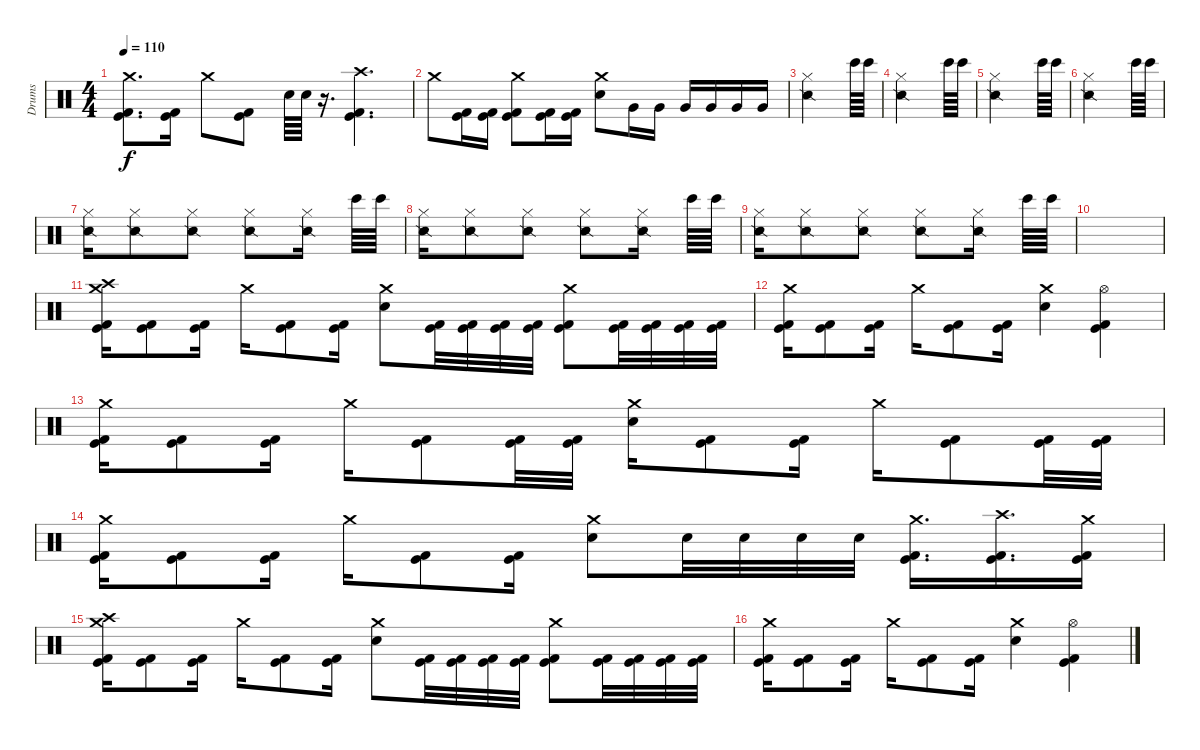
\track ("Drums" "Drums") {instrument percussion}
\staff {score}
\articulation defaults
\ts (4 4)
\tempo 110
\clef neutral
\ks c
("Crash medium (hit)" "Kick (hit)" "Kick (hit) 2").8{d dy f} ("Kick (hit)" "Kick (hit) 2").16 "Crash medium (hit)".8 ("Kick (hit)" "Kick (hit) 2").8 "Electric Snare (hit)".64 "Electric Snare (hit)".64 r.16{d} ("Crash high (hit)" "Kick (hit)" "Kick (hit) 2").4{d} |
"Crash medium (hit)".8 ("Kick (hit)" "Kick (hit) 2").16 ("Kick (hit)" "Kick (hit) 2").16 ("Crash medium (hit)" "Kick (hit)" "Kick (hit) 2").8 ("Kick (hit)" "Kick (hit) 2").16 ("Kick (hit)" "Kick (hit) 2").16 ("Crash medium (hit)" "Electric Snare (hit)").8 "Very Low Tom (hit)".16 "Very Low Tom (hit)".16 "Very Low Tom (hit)".16 "Very Low Tom (hit)".16 "Very Low Tom (hit)".16 "Very Low Tom (hit)".16 |
("Hi-Hat (closed)" "Snare (side stick) 2").2 "Bongo High (hit)".64 "Bongo High (hit)".64 |
("Hi-Hat (closed)" "Snare (side stick) 2").2 "Bongo High (hit)".64 "Bongo High (hit)".64 |
("Hi-Hat (closed)" "Snare (side stick) 2").2 "Bongo High (hit)".64 "Bongo High (hit)".64 |
("Hi-Hat (closed)" "Snare (side stick) 2").2 "Bongo High (hit)".64 "Bongo High (hit)".64 |
("Hi-Hat (closed)" "Snare (side stick) 2").16 ("Hi-Hat (closed)" "Snare (side stick) 2").8 ("Hi-Hat (closed)" "Snare (side stick) 2").8 ("Hi-Hat (closed)" "Snare (side stick) 2").8 ("Hi-Hat (closed)" "Snare (side stick) 2").16 "Bongo High (hit)".64 "Bongo High (hit)".64 |
("Hi-Hat (closed)" "Snare (side stick) 2").16 ("Hi-Hat (closed)" "Snare (side stick) 2").8 ("Hi-Hat (closed)" "Snare (side stick) 2").8 ("Hi-Hat (closed)" "Snare (side stick) 2").8 ("Hi-Hat (closed)" "Snare (side stick) 2").16 "Bongo High (hit)".64 "Bongo High (hit)".64 |
("Hi-Hat (closed)" "Snare (side stick) 2").16 ("Hi-Hat (closed)" "Snare (side stick) 2").8 ("Hi-Hat (closed)" "Snare (side stick) 2").8 ("Hi-Hat (closed)" "Snare (side stick) 2").8 ("Hi-Hat (closed)" "Snare (side stick) 2").16 "Bongo High (hit)".64 "Bongo High (hit)".64 |
|
("Crash high (hit)" "Crash medium (hit)" "Kick (hit)" "Kick (hit) 2").16 ("Kick (hit)" "Kick (hit) 2").8 ("Kick (hit)" "Kick (hit) 2").16 "Crash medium (hit)".16 ("Kick (hit)" "Kick (hit) 2").8 ("Kick (hit)" "Kick (hit) 2").16 ("Crash medium (hit)" "Electric Snare (hit)").8 ("Kick (hit)" "Kick (hit) 2").32 ("Kick (hit)" "Kick (hit) 2").32 ("Kick (hit)" "Kick (hit) 2").32 ("Kick (hit)" "Kick (hit) 2").32 ("Crash medium (hit)" "Kick (hit)" "Kick (hit) 2").8 ("Kick (hit)" "Kick (hit) 2").32 ("Kick (hit)" "Kick (hit) 2").32 ("Kick (hit)" "Kick (hit) 2").32 ("Kick (hit)" "Kick (hit) 2").32 |
("Crash medium (hit)" "Kick (hit)" "Kick (hit) 2").16 ("Kick (hit)" "Kick (hit) 2").8 ("Kick (hit)" "Kick (hit) 2").16 "Crash medium (hit)".16 ("Kick (hit)" "Kick (hit) 2").8 ("Kick (hit)" "Kick (hit) 2").16 ("Crash medium (hit)" "Electric Snare (hit)").4 ("Hi-Hat (open)" "Kick (hit)" "Kick (hit) 2").4 |
("Crash medium (hit)" "Kick (hit)" "Kick (hit) 2").16 ("Kick (hit)" "Kick (hit) 2").8 ("Kick (hit)" "Kick (hit) 2").16 "Crash medium (hit)".16 ("Kick (hit)" "Kick (hit) 2").8 ("Kick (hit)" "Kick (hit) 2").32 ("Kick (hit)" "Kick (hit) 2").32 ("Crash medium (hit)" "Electric Snare (hit)").16 ("Kick (hit)" "Kick (hit) 2").8 ("Kick (hit)" "Kick (hit) 2").16 "Crash medium (hit)".16 ("Kick (hit)" "Kick (hit) 2").8 ("Kick (hit)" "Kick (hit) 2").32 ("Kick (hit)" "Kick (hit) 2").32 |
("Crash medium (hit)" "Kick (hit)" "Kick (hit) 2").16 ("Kick (hit)" "Kick (hit) 2").8 ("Kick (hit)" "Kick (hit) 2").16 "Crash medium (hit)".16 ("Kick (hit)" "Kick (hit) 2").8 ("Kick (hit)" "Kick (hit) 2").16 ("Crash medium (hit)" "Electric Snare (hit)").8 "Electric Snare (hit)".32 "Electric Snare (hit)".32 "Electric Snare (hit)".32 "Electric Snare (hit)".32 ("Crash medium (hit)" "Kick (hit)" "Kick (hit) 2").16{d} ("Crash high (hit)" "Kick (hit)" "Kick (hit) 2").16{d} ("Crash medium (hit)" "Kick (hit)" "Kick (hit) 2").16 |
("Crash high (hit)" "Crash medium (hit)" "Kick (hit)" "Kick (hit) 2").16 ("Kick (hit)" "Kick (hit) 2").8 ("Kick (hit)" "Kick (hit) 2").16 "Crash medium (hit)".16 ("Kick (hit)" "Kick (hit) 2").8 ("Kick (hit)" "Kick (hit) 2").16 ("Crash medium (hit)" "Electric Snare (hit)").8 ("Kick (hit)" "Kick (hit) 2").32 ("Kick (hit)" "Kick (hit) 2").32 ("Kick (hit)" "Kick (hit) 2").32 ("Kick (hit)" "Kick (hit) 2").32 ("Crash medium (hit)" "Kick (hit)" "Kick (hit) 2").8 ("Kick (hit)" "Kick (hit) 2").32 ("Kick (hit)" "Kick (hit) 2").32 ("Kick (hit)" "Kick (hit) 2").32 ("Kick (hit)" "Kick (hit) 2").32 |
("Crash medium (hit)" "Kick (hit)" "Kick (hit) 2").16 ("Kick (hit)" "Kick (hit) 2").8 ("Kick (hit)" "Kick (hit) 2").16 "Crash medium (hit)".16 ("Kick (hit)" "Kick (hit) 2").8 ("Kick (hit)" "Kick (hit) 2").16 ("Crash medium (hit)" "Electric Snare (hit)").4 ("Hi-Hat (open)" "Kick (hit)" "Kick (hit) 2").4
